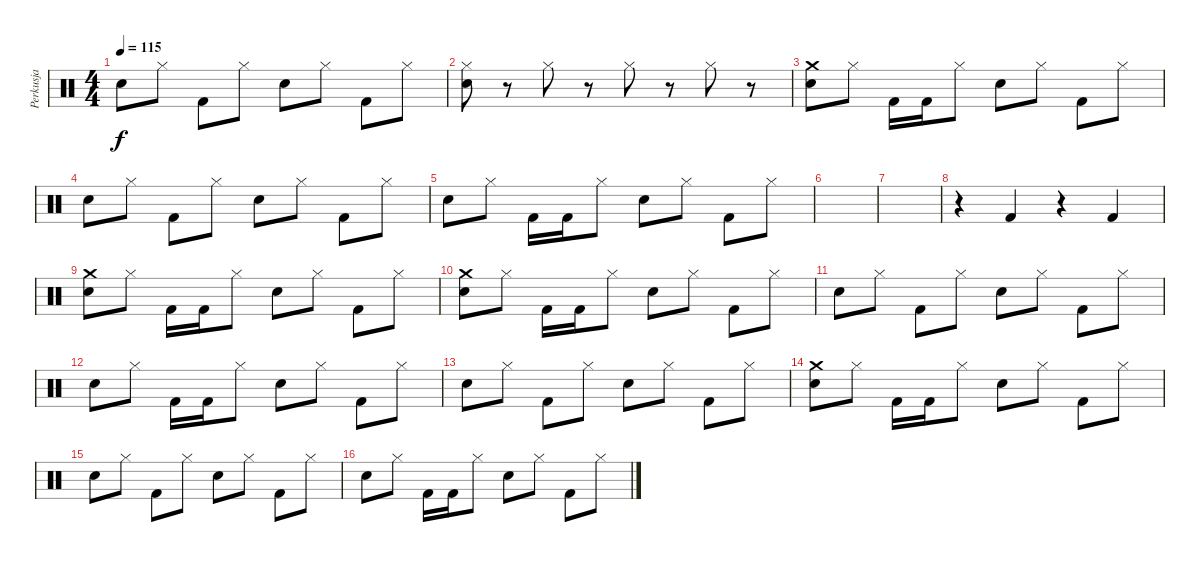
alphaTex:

\track ("Perkusja" "Perkusja") {instrument percussion}
\staff {score}
\articulation defaults
\ts (4 4)
\tempo 115
\clef neutral
\ks c "Snare (hit) 2".8{dy f} "Hi-Hat (closed)".8 "Kick (hit) 2".8 "Hi-Hat (closed)".8 "Snare (hit) 2".8 "Hi-Hat (closed)".8 "Kick (hit) 2".8 "Hi-Hat (closed)".8
|
("Hi-Hat (closed)" "Snare (hit) 2").8 r.8 "Hi-Hat (closed)".8 r.8 "Hi-Hat (closed)".8 r.8 "Hi-Hat (closed)".8 r.8 |
("Snare (hit) 2" "Crash medium (hit)").8 "Hi-Hat (closed)".8 "Kick (hit) 2".16 "Kick (hit) 2".16 "Hi-Hat (closed)".8 "Snare (hit) 2".8 "Hi-Hat (closed)".8 "Kick (hit) 2".8 "Hi-Hat (closed)".8 |
"Snare (hit) 2".8 "Hi-Hat (closed)".8 "Kick (hit) 2".8 "Hi-Hat (closed)".8 "Snare (hit) 2".8 "Hi-Hat (closed)".8 "Kick (hit) 2".8 "Hi-Hat (closed)".8 |
"Snare (hit) 2".8 "Hi-Hat (closed)".8 "Kick (hit) 2".16 "Kick (hit) 2".16 "Hi-Hat (closed)".8 "Snare (hit) 2".8 "Hi-Hat (closed)".8 "Kick (hit) 2".8 "Hi-Hat (closed)".8 |
|
|
r.4 "Kick (hit) 2".4 r.4 "Kick (hit) 2".4 |
("Snare (hit) 2" "Crash medium (hit)").8 "Hi-Hat (closed)".8 "Kick (hit) 2".16 "Kick (hit) 2".16 "Hi-Hat (closed)".8 "Snare (hit) 2".8 "Hi-Hat (closed)".8 "Kick (hit) 2".8 "Hi-Hat (closed)".8 |
("Snare (hit) 2" "Crash medium (hit)").8 "Hi-Hat (closed)".8 "Kick (hit) 2".16 "Kick (hit) 2".16 "Hi-Hat (closed)".8 "Snare (hit) 2".8 "Hi-Hat (closed)".8 "Kick (hit) 2".8 "Hi-Hat (closed)".8 |
"Snare (hit) 2".8 "Hi-Hat (closed)".8 "Kick (hit) 2".8 "Hi-Hat (closed)".8 "Snare (hit) 2".8 "Hi-Hat (closed)".8 "Kick (hit) 2".8 "Hi-Hat (closed)".8 |
"Snare (hit) 2".8 "Hi-Hat (closed)".8 "Kick (hit) 2".16 "Kick (hit) 2".16 "Hi-Hat (closed)".8 "Snare (hit) 2".8 "Hi-Hat (closed)".8 "Kick (hit) 2".8 "Hi-Hat (closed)".8 |
"Snare (hit) 2".8 "Hi-Hat (closed)".8 "Kick (hit) 2".8 "Hi-Hat (closed)".8 "Snare (hit) 2".8 "Hi-Hat (closed)".8 "Kick (hit) 2".8 "Hi-Hat (closed)".8 |
("Snare (hit) 2" "Crash medium (hit)").8 "Hi-Hat (closed)".8 "Kick (hit) 2".16 "Kick (hit) 2".16 "Hi-Hat (closed)".8 "Snare (hit) 2".8 "Hi-Hat (closed)".8 "Kick (hit) 2".8 "Hi-Hat (closed)".8 |
"Snare (hit) 2".8 "Hi-Hat (closed)".8 "Kick (hit) 2".8 "Hi-Hat (closed)".8 "Snare (hit) 2".8 "Hi-Hat (closed)".8 "Kick (hit) 2".8 "Hi-Hat (closed)".8 |
"Snare (hit) 2".8 "Hi-Hat (closed)".8 "Kick (hit) 2".16 "Kick (hit) 2".16 "Hi-Hat (closed)".8 "Snare (hit) 2".8 "Hi-Hat (closed)".8 "Kick (hit) 2".8 "Hi-Hat (closed)".8
